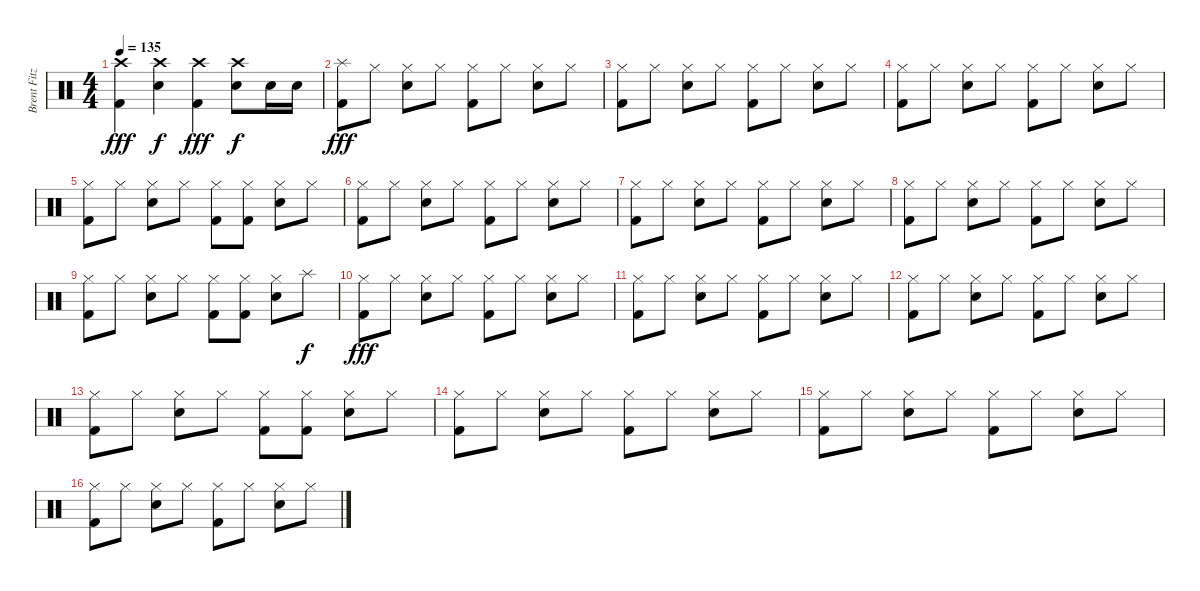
\track ("Brent Fitz" "Brent Fitz") {instrument percussion}
\staff {score}
\articulation defaults
\ts (4 4)
\tempo 135
\clef neutral
\ks c
("Crash high (hit)" "Kick (hit) 2").4{dy fff} ("Crash high (hit)" "Snare (hit) 2").4{dy f} ("Crash high (hit)" "Kick (hit) 2").4{dy fff} ("Crash high (hit)" "Snare (hit) 2").8{dy f} "Snare (hit) 2".16 "Snare (hit) 2".16 |
("Splash (hit)" "Kick (hit) 2").8{dy fff} "Hi-Hat (closed)".8 ("Hi-Hat (closed)" "Snare (hit) 2").8 "Hi-Hat (closed)".8 ("Hi-Hat (closed)" "Kick (hit) 2").8 "Hi-Hat (closed)".8 ("Hi-Hat (closed)" "Snare (hit) 2").8 "Hi-Hat (closed)".8 |
("Hi-Hat (closed)" "Kick (hit) 2").8 "Hi-Hat (closed)".8 ("Hi-Hat (closed)" "Snare (hit) 2").8 "Hi-Hat (closed)".8 ("Hi-Hat (closed)" "Kick (hit) 2").8 "Hi-Hat (closed)".8 ("Hi-Hat (closed)" "Snare (hit) 2").8 "Hi-Hat (closed)".8 |
("Hi-Hat (closed)" "Kick (hit) 2").8 "Hi-Hat (closed)".8 ("Hi-Hat (closed)" "Snare (hit) 2").8 "Hi-Hat (closed)".8 ("Hi-Hat (closed)" "Kick (hit) 2").8 "Hi-Hat (closed)".8 ("Hi-Hat (closed)" "Snare (hit) 2").8 "Hi-Hat (closed)".8 |
("Hi-Hat (closed)" "Kick (hit) 2").8 "Hi-Hat (closed)".8 ("Hi-Hat (closed)" "Snare (hit) 2").8 "Hi-Hat (closed)".8 ("Hi-Hat (closed)" "Kick (hit) 2").8 ("Hi-Hat (closed)" "Kick (hit) 2").8 ("Hi-Hat (closed)" "Snare (hit) 2").8 "Hi-Hat (closed)".8 |
("Hi-Hat (closed)" "Kick (hit) 2").8 "Hi-Hat (closed)".8 ("Hi-Hat (closed)" "Snare (hit) 2").8 "Hi-Hat (closed)".8 ("Hi-Hat (closed)" "Kick (hit) 2").8 "Hi-Hat (closed)".8 ("Hi-Hat (closed)" "Snare (hit) 2").8 "Hi-Hat (closed)".8 |
("Hi-Hat (closed)" "Kick (hit) 2").8 "Hi-Hat (closed)".8 ("Hi-Hat (closed)" "Snare (hit) 2").8 "Hi-Hat (closed)".8 ("Hi-Hat (closed)" "Kick (hit) 2").8 "Hi-Hat (closed)".8 ("Hi-Hat (closed)" "Snare (hit) 2").8 "Hi-Hat (closed)".8 |
("Hi-Hat (closed)" "Kick (hit) 2").8 "Hi-Hat (closed)".8 ("Hi-Hat (closed)" "Snare (hit) 2").8 "Hi-Hat (closed)".8 ("Hi-Hat (closed)" "Kick (hit) 2").8 "Hi-Hat (closed)".8 ("Hi-Hat (closed)" "Snare (hit) 2").8 "Hi-Hat (closed)".8 |
("Hi-Hat (closed)" "Kick (hit) 2").8 "Hi-Hat (closed)".8 ("Hi-Hat (closed)" "Snare (hit) 2").8 "Hi-Hat (closed)".8 ("Hi-Hat (closed)" "Kick (hit) 2").8 ("Hi-Hat (closed)" "Kick (hit) 2").8 ("Hi-Hat (closed)" "Snare (hit) 2").8 "Splash (hit)".8{dy f} |
("Hi-Hat (closed)" "Kick (hit) 2").8{dy fff} "Hi-Hat (closed)".8 ("Hi-Hat (closed)" "Snare (hit) 2").8 "Hi-Hat (closed)".8 ("Hi-Hat (closed)" "Kick (hit) 2").8 "Hi-Hat (closed)".8 ("Hi-Hat (closed)" "Snare (hit) 2").8 "Hi-Hat (closed)".8 |
("Hi-Hat (closed)" "Kick (hit) 2").8 "Hi-Hat (closed)".8 ("Hi-Hat (closed)" "Snare (hit) 2").8 "Hi-Hat (closed)".8 ("Hi-Hat (closed)" "Kick (hit) 2").8 "Hi-Hat (closed)".8 ("Hi-Hat (closed)" "Snare (hit) 2").8 "Hi-Hat (closed)".8 |
("Hi-Hat (closed)" "Kick (hit) 2").8 "Hi-Hat (closed)".8 ("Hi-Hat (closed)" "Snare (hit) 2").8 "Hi-Hat (closed)".8 ("Hi-Hat (closed)" "Kick (hit) 2").8 "Hi-Hat (closed)".8 ("Hi-Hat (closed)" "Snare (hit) 2").8 "Hi-Hat (closed)".8 |
("Hi-Hat (closed)" "Kick (hit) 2").8 "Hi-Hat (closed)".8 ("Hi-Hat (closed)" "Snare (hit) 2").8 "Hi-Hat (closed)".8 ("Hi-Hat (closed)" "Kick (hit) 2").8 ("Hi-Hat (closed)" "Kick (hit) 2").8 ("Hi-Hat (closed)" "Snare (hit) 2").8 "Hi-Hat (closed)".8 |
("Hi-Hat (closed)" "Kick (hit) 2").8 "Hi-Hat (closed)".8 ("Hi-Hat (closed)" "Snare (hit) 2").8 "Hi-Hat (closed)".8 ("Hi-Hat (closed)" "Kick (hit) 2").8 "Hi-Hat (closed)".8 ("Hi-Hat (closed)" "Snare (hit) 2").8 "Hi-Hat (closed)".8 |
("Hi-Hat (closed)" "Kick (hit) 2").8 "Hi-Hat (closed)".8 ("Hi-Hat (closed)" "Snare (hit) 2").8 "Hi-Hat (closed)".8 ("Hi-Hat (closed)" "Kick (hit) 2").8 "Hi-Hat (closed)".8 ("Hi-Hat (closed)" "Snare (hit) 2").8 "Hi-Hat (closed)".8 |
("Hi-Hat (closed)" "Kick (hit) 2").8 "Hi-Hat (closed)".8 ("Hi-Hat (closed)" "Snare (hit) 2").8 "Hi-Hat (closed)".8 ("Hi-Hat (closed)" "Kick (hit) 2").8 "Hi-Hat (closed)".8 ("Hi-Hat (closed)" "Snare (hit) 2").8 "Hi-Hat (closed)".8
